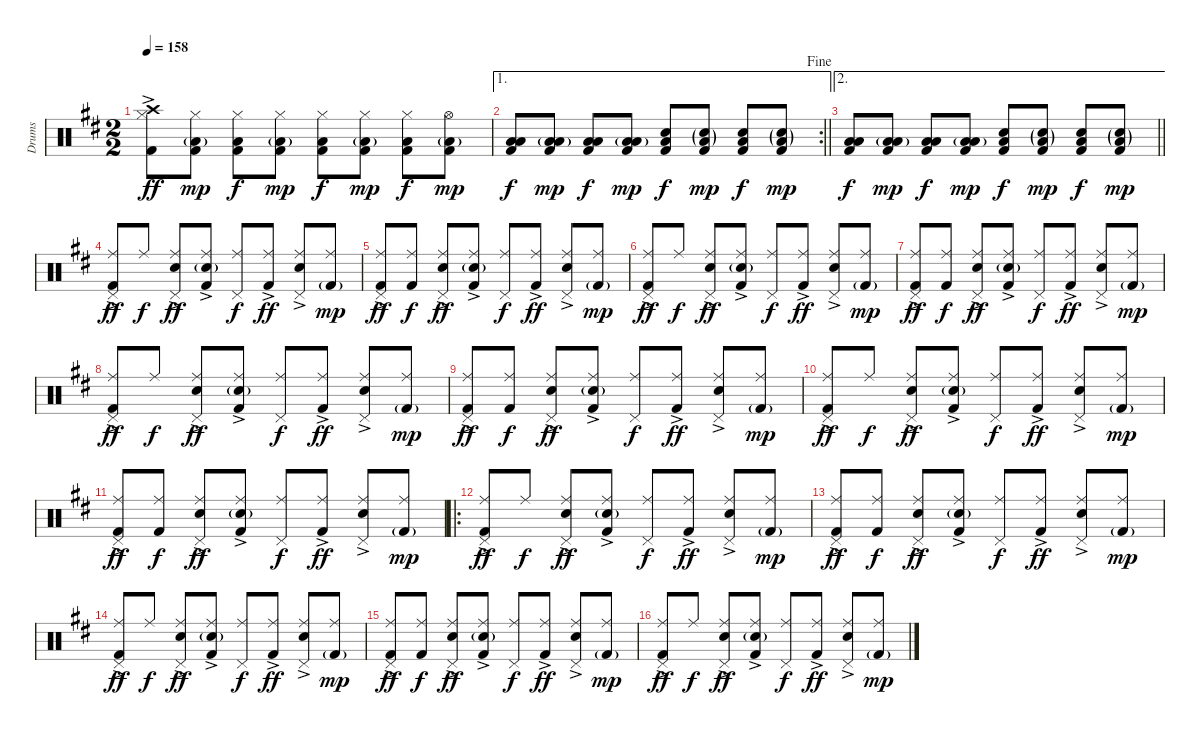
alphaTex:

\track ("Drums" "Drums") {instrument percussion}
\staff {score}
\articulation defaults
\ts (2 2)
\tempo 158
\clef neutral
\ks d
("Hi-Hat (closed)" "Crash high (hit)" "Kick (hit) 2"{ac}).8{dy ff} ("Hi-Hat (closed)" "Low Floor Tom (hit)"{g} "Kick (hit) 2").8{dy mp} ("Hi-Hat (closed)" "Low Floor Tom (hit)" "Kick (hit) 2").8{dy f} ("Hi-Hat (closed)" "Low Floor Tom (hit)"{g} "Kick (hit) 2").8{dy mp} ("Hi-Hat (closed)" "Low Floor Tom (hit)" "Kick (hit) 2").8{dy f} ("Hi-Hat (closed)" "Low Floor Tom (hit)"{g} "Kick (hit) 2").8{dy mp} ("Hi-Hat (closed)" "Low Floor Tom (hit)" "Kick (hit) 2").8{dy f} ("Hi-Hat (open)" "Low Floor Tom (hit)"{g} "Kick (hit) 2").8{dy mp} |
\ae 1
\rc 2
\jump fine
\barLineRight lightlight
("Low Tom (hit)" "Low Floor Tom (hit)" "Kick (hit) 2").8{dy f} ("Low Tom (hit)"{g} "Low Floor Tom (hit)"{g} "Kick (hit) 2").8{dy mp} ("Low Tom (hit)" "Low Floor Tom (hit)" "Kick (hit) 2").8{dy f} ("Low Tom (hit)"{g} "Low Floor Tom (hit)"{g} "Kick (hit) 2").8{dy mp} ("Snare (hit) 2" "Low Floor Tom (hit)" "Kick (hit) 2").8{dy f} ("Snare (hit) 2"{g} "Low Floor Tom (hit)"{g} "Kick (hit) 2").8{dy mp} ("Snare (hit) 2" "Low Floor Tom (hit)" "Kick (hit) 2").8{dy f} ("Snare (hit) 2"{g} "Low Floor Tom (hit)"{g} "Kick (hit) 2").8{dy mp} |
\ae 2
\barLineRight lightlight
("Low Tom (hit)" "Low Floor Tom (hit)" "Kick (hit) 2").8{dy f} ("Low Tom (hit)"{g} "Low Floor Tom (hit)"{g} "Kick (hit) 2").8{dy mp} ("Low Tom (hit)" "Low Floor Tom (hit)" "Kick (hit) 2").8{dy f} ("Low Tom (hit)"{g} "Low Floor Tom (hit)"{g} "Kick (hit) 2").8{dy mp} ("Snare (hit) 2" "Low Floor Tom (hit)" "Kick (hit) 2").8{dy f} ("Snare (hit) 2"{g} "Low Floor Tom (hit)"{g} "Kick (hit) 2").8{dy mp} ("Snare (hit) 2" "Low Floor Tom (hit)" "Kick (hit) 2").8{dy f} ("Snare (hit) 2"{g} "Low Floor Tom (hit)"{g} "Kick (hit) 2").8{dy mp} |
("Ride (middle)" "Pedal Hi-Hat (hit)" "Kick (hit) 2"{ac}).8{dy ff} "Ride (middle)".8{dy f} ("Ride (middle)" "Pedal Hi-Hat (hit)" "Snare (hit) 2"{ac}).8{dy ff} ("Ride (middle)" "Snare (hit) 2"{g} "Kick (hit) 2"{ac}).8 ("Ride (middle)" "Pedal Hi-Hat (hit)").8{dy f} ("Ride (middle)" "Kick (hit) 2"{ac}).8{dy ff} ("Ride (middle)" "Pedal Hi-Hat (hit)" "Snare (hit) 2"{ac}).8 ("Ride (middle)" "Kick (hit) 2"{g}).8{dy mp} |
("Ride (middle)" "Pedal Hi-Hat (hit)" "Kick (hit) 2"{ac}).8{dy ff} ("Ride (middle)" "Kick (hit) 2").8{dy f} ("Ride (middle)" "Pedal Hi-Hat (hit)" "Snare (hit) 2"{ac}).8{dy ff} ("Ride (middle)" "Snare (hit) 2"{g} "Kick (hit) 2"{ac}).8 ("Ride (middle)" "Pedal Hi-Hat (hit)").8{dy f} ("Ride (middle)" "Kick (hit) 2"{ac}).8{dy ff} ("Ride (middle)" "Pedal Hi-Hat (hit)" "Snare (hit) 2"{ac}).8 ("Ride (middle)" "Kick (hit) 2"{g}).8{dy mp} |
("Ride (middle)" "Pedal Hi-Hat (hit)" "Kick (hit) 2"{ac}).8{dy ff} "Ride (middle)".8{dy f} ("Ride (middle)" "Pedal Hi-Hat (hit)" "Snare (hit) 2"{ac}).8{dy ff} ("Ride (middle)" "Snare (hit) 2"{g} "Kick (hit) 2"{ac}).8 ("Ride (middle)" "Pedal Hi-Hat (hit)").8{dy f} ("Ride (middle)" "Kick (hit) 2"{ac}).8{dy ff} ("Ride (middle)" "Pedal Hi-Hat (hit)" "Snare (hit) 2"{ac}).8 ("Ride (middle)" "Kick (hit) 2"{g}).8{dy mp} |
("Ride (middle)" "Pedal Hi-Hat (hit)" "Kick (hit) 2"{ac}).8{dy ff} ("Ride (middle)" "Kick (hit) 2").8{dy f} ("Ride (middle)" "Pedal Hi-Hat (hit)" "Snare (hit) 2"{ac}).8{dy ff} ("Ride (middle)" "Snare (hit) 2"{g} "Kick (hit) 2"{ac}).8 ("Ride (middle)" "Pedal Hi-Hat (hit)").8{dy f} ("Ride (middle)" "Kick (hit) 2"{ac}).8{dy ff} ("Ride (middle)" "Pedal Hi-Hat (hit)" "Snare (hit) 2"{ac}).8 ("Ride (middle)" "Kick (hit) 2"{g}).8{dy mp} |
("Ride (middle)" "Pedal Hi-Hat (hit)" "Kick (hit) 2"{ac}).8{dy ff} "Ride (middle)".8{dy f} ("Ride (middle)" "Pedal Hi-Hat (hit)" "Snare (hit) 2"{ac}).8{dy ff} ("Ride (middle)" "Snare (hit) 2"{g} "Kick (hit) 2"{ac}).8 ("Ride (middle)" "Pedal Hi-Hat (hit)").8{dy f} ("Ride (middle)" "Kick (hit) 2"{ac}).8{dy ff} ("Ride (middle)" "Pedal Hi-Hat (hit)" "Snare (hit) 2"{ac}).8 ("Ride (middle)" "Kick (hit) 2"{g}).8{dy mp} |
("Ride (middle)" "Pedal Hi-Hat (hit)" "Kick (hit) 2"{ac}).8{dy ff} ("Ride (middle)" "Kick (hit) 2").8{dy f} ("Ride (middle)" "Pedal Hi-Hat (hit)" "Snare (hit) 2"{ac}).8{dy ff} ("Ride (middle)" "Snare (hit) 2"{g} "Kick (hit) 2"{ac}).8 ("Ride (middle)" "Pedal Hi-Hat (hit)").8{dy f} ("Ride (middle)" "Kick (hit) 2"{ac}).8{dy ff} ("Ride (middle)" "Pedal Hi-Hat (hit)" "Snare (hit) 2"{ac}).8 ("Ride (middle)" "Kick (hit) 2"{g}).8{dy mp} |
("Ride (middle)" "Pedal Hi-Hat (hit)" "Kick (hit) 2"{ac}).8{dy ff} "Ride (middle)".8{dy f} ("Ride (middle)" "Pedal Hi-Hat (hit)" "Snare (hit) 2"{ac}).8{dy ff} ("Ride (middle)" "Snare (hit) 2"{g} "Kick (hit) 2"{ac}).8 ("Ride (middle)" "Pedal Hi-Hat (hit)").8{dy f} ("Ride (middle)" "Kick (hit) 2"{ac}).8{dy ff} ("Ride (middle)" "Pedal Hi-Hat (hit)" "Snare (hit) 2"{ac}).8 ("Ride (middle)" "Kick (hit) 2"{g}).8{dy mp} |
("Ride (middle)" "Pedal Hi-Hat (hit)" "Kick (hit) 2"{ac}).8{dy ff} ("Ride (middle)" "Kick (hit) 2").8{dy f} ("Ride (middle)" "Pedal Hi-Hat (hit)" "Snare (hit) 2"{ac}).8{dy ff} ("Ride (middle)" "Snare (hit) 2"{g} "Kick (hit) 2"{ac}).8 ("Ride (middle)" "Pedal Hi-Hat (hit)").8{dy f} ("Ride (middle)" "Kick (hit) 2"{ac}).8{dy ff} ("Ride (middle)" "Pedal Hi-Hat (hit)" "Snare (hit) 2"{ac}).8 ("Ride (middle)" "Kick (hit) 2"{g}).8{dy mp} |
\ro
("Ride (middle)" "Pedal Hi-Hat (hit)" "Kick (hit) 2"{ac}).8{dy ff} "Ride (middle)".8{dy f} ("Ride (middle)" "Pedal Hi-Hat (hit)" "Snare (hit) 2"{ac}).8{dy ff} ("Ride (middle)" "Snare (hit) 2"{g} "Kick (hit) 2"{ac}).8 ("Ride (middle)" "Pedal Hi-Hat (hit)").8{dy f} ("Ride (middle)" "Kick (hit) 2"{ac}).8{dy ff} ("Ride (middle)" "Pedal Hi-Hat (hit)" "Snare (hit) 2"{ac}).8 ("Ride (middle)" "Kick (hit) 2"{g}).8{dy mp} |
("Ride (middle)" "Pedal Hi-Hat (hit)" "Kick (hit) 2"{ac}).8{dy ff} ("Ride (middle)" "Kick (hit) 2").8{dy f} ("Ride (middle)" "Pedal Hi-Hat (hit)" "Snare (hit) 2"{ac}).8{dy ff} ("Ride (middle)" "Snare (hit) 2"{g} "Kick (hit) 2"{ac}).8 ("Ride (middle)" "Pedal Hi-Hat (hit)").8{dy f} ("Ride (middle)" "Kick (hit) 2"{ac}).8{dy ff} ("Ride (middle)" "Pedal Hi-Hat (hit)" "Snare (hit) 2"{ac}).8 ("Ride (middle)" "Kick (hit) 2"{g}).8{dy mp} |
("Ride (middle)" "Pedal Hi-Hat (hit)" "Kick (hit) 2"{ac}).8{dy ff} "Ride (middle)".8{dy f} ("Ride (middle)" "Pedal Hi-Hat (hit)" "Snare (hit) 2"{ac}).8{dy ff} ("Ride (middle)" "Snare (hit) 2"{g} "Kick (hit) 2"{ac}).8 ("Ride (middle)" "Pedal Hi-Hat (hit)").8{dy f} ("Ride (middle)" "Kick (hit) 2"{ac}).8{dy ff} ("Ride (middle)" "Pedal Hi-Hat (hit)" "Snare (hit) 2"{ac}).8 ("Ride (middle)" "Kick (hit) 2"{g}).8{dy mp} |
("Ride (middle)" "Pedal Hi-Hat (hit)" "Kick (hit) 2"{ac}).8{dy ff} ("Ride (middle)" "Kick (hit) 2").8{dy f} ("Ride (middle)" "Pedal Hi-Hat (hit)" "Snare (hit) 2"{ac}).8{dy ff} ("Ride (middle)" "Snare (hit) 2"{g} "Kick (hit) 2"{ac}).8 ("Ride (middle)" "Pedal Hi-Hat (hit)").8{dy f} ("Ride (middle)" "Kick (hit) 2"{ac}).8{dy ff} ("Ride (middle)" "Pedal Hi-Hat (hit)" "Snare (hit) 2"{ac}).8 ("Ride (middle)" "Kick (hit) 2"{g}).8{dy mp} |
("Ride (middle)" "Pedal Hi-Hat (hit)" "Kick (hit) 2"{ac}).8{dy ff} "Ride (middle)".8{dy f} ("Ride (middle)" "Pedal Hi-Hat (hit)" "Snare (hit) 2"{ac}).8{dy ff} ("Ride (middle)" "Snare (hit) 2"{g} "Kick (hit) 2"{ac}).8 ("Ride (middle)" "Pedal Hi-Hat (hit)").8{dy f} ("Ride (middle)" "Kick (hit) 2"{ac}).8{dy ff} ("Ride (middle)" "Pedal Hi-Hat (hit)" "Snare (hit) 2"{ac}).8 ("Ride (middle)" "Kick (hit) 2"{g}).8{dy mp}
